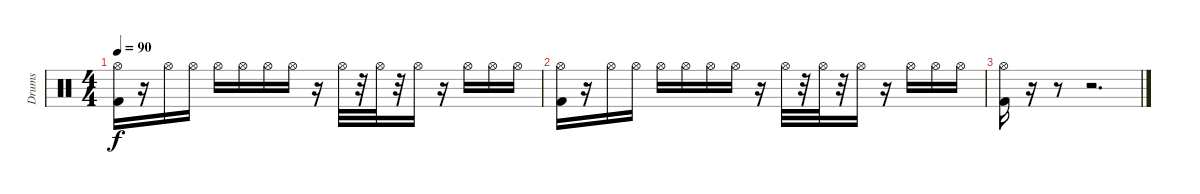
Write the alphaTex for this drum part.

\track ("Drums" "Drums") {instrument percussion}
\staff {score}
\articulation defaults
\ts (4 4)
\tempo 90
\clef neutral
\ks c
("Hi-Hat (open)" "Kick (hit) 2").16{dy f} r.16 "Hi-Hat (open)".16 "Hi-Hat (open)".16 "Hi-Hat (open)".16 "Hi-Hat (open)".16 "Hi-Hat (open)".16 "Hi-Hat (open)".16 r.16 "Hi-Hat (open)".32 r.32 "Hi-Hat (open)".32 r.32 "Hi-Hat (open)".16 r.16 "Hi-Hat (open)".16 "Hi-Hat (open)".16 "Hi-Hat (open)".16 |
("Hi-Hat (open)" "Kick (hit) 2").16 r.16 "Hi-Hat (open)".16 "Hi-Hat (open)".16 "Hi-Hat (open)".16 "Hi-Hat (open)".16 "Hi-Hat (open)".16 "Hi-Hat (open)".16 r.16 "Hi-Hat (open)".32 r.32 "Hi-Hat (open)".32 r.32 "Hi-Hat (open)".16 r.16 "Hi-Hat (open)".16 "Hi-Hat (open)".16 "Hi-Hat (open)".16 |
("Hi-Hat (open)" "Kick (hit) 2").16 r.16 r.8 r.2{d}
